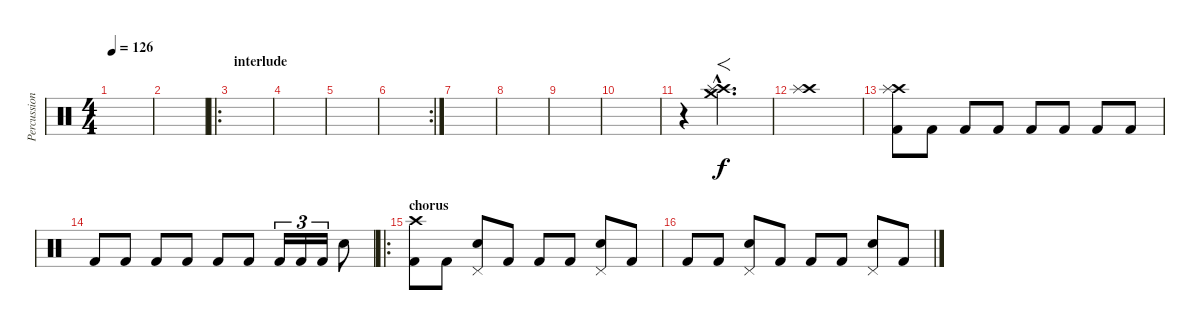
\track ("Percussion" "Percussion") {instrument percussion}
\staff {score}
\articulation defaults
\ts (4 4)
\tempo 126
\clef neutral
\ks c
|
|
\ro
\section ("" "interlude")
|
|
|
\rc 2
|
|
|
|
|
r.4 ("Crash high (hit)"{hac} "Splash (hit)"{hac} "Crash medium (hit)"{hac}).2{f d} |
("Crash high (hit)" "Splash (hit)").1 |
("Crash high (hit)" "Splash (hit)" "Kick (hit) 2").8 "Kick (hit) 2".8 "Kick (hit) 2".8 "Kick (hit) 2".8 "Kick (hit) 2".8 "Kick (hit) 2".8 "Kick (hit) 2".8 "Kick (hit) 2".8 |
"Kick (hit) 2".8 "Kick (hit) 2".8 "Kick (hit) 2".8 "Kick (hit) 2".8 "Kick (hit) 2".8 "Kick (hit) 2".8 "Kick (hit) 2".16{tu (3 2)} "Kick (hit) 2".16{tu (3 2)} "Kick (hit) 2".16{tu (3 2)} "Electric Snare (hit)".8 |
\ro
\section ("" "chorus")
("Crash high (hit)" "Kick (hit) 2").8 "Kick (hit) 2".8 ("Pedal Hi-Hat (hit)" "Electric Snare (hit)").8 "Kick (hit) 2".8 "Kick (hit) 2".8 "Kick (hit) 2".8 ("Pedal Hi-Hat (hit)" "Electric Snare (hit)").8 "Kick (hit) 2".8 |
"Kick (hit) 2".8 "Kick (hit) 2".8 ("Pedal Hi-Hat (hit)" "Electric Snare (hit)").8 "Kick (hit) 2".8 "Kick (hit) 2".8 "Kick (hit) 2".8 ("Pedal Hi-Hat (hit)" "Electric Snare (hit)").8 "Kick (hit) 2".8
